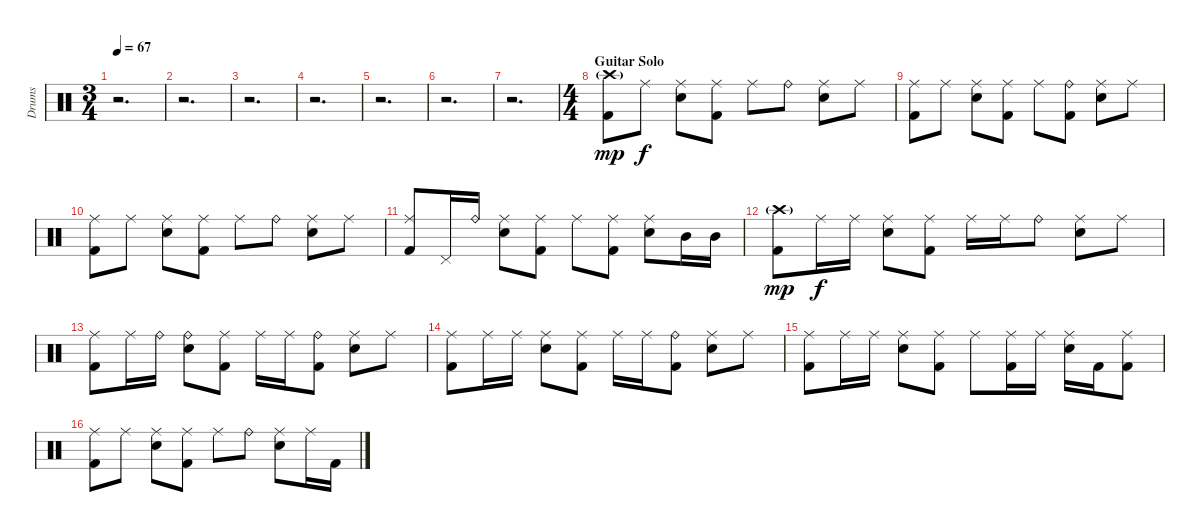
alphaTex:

\track ("Drums" "Drums") {instrument percussion}
\staff {score}
\articulation defaults
\ts (3 4)
\tempo 67
\clef neutral
\ks c
r.2{d dy mp} |
r.2{d} |
r.2{d} |
r.2{d} |
r.2{d} |
r.2{d} |
r.2{d} |
\ts (4 4)
\section ("" "Guitar Solo")
("Crash high (hit)"{g} "Kick (hit) 2").8 "Ride (middle)".8{dy f} ("Ride (middle)" "Snare (hit) 2").8 ("Ride (middle)" "Kick (hit) 2").8 "Ride (middle)".8 "Ride (bell)".8 ("Ride (middle)" "Snare (hit) 2").8 "Ride (middle)".8 |
("Ride (middle)" "Kick (hit) 2").8 "Ride (middle)".8 ("Ride (middle)" "Snare (hit) 2").8 ("Ride (middle)" "Kick (hit) 2").8 "Ride (middle)".8 ("Ride (bell)" "Kick (hit) 2").8 ("Ride (middle)" "Snare (hit) 2").8 "Ride (middle)".8 |
("Ride (middle)" "Kick (hit) 2").8 "Ride (middle)".8 ("Ride (middle)" "Snare (hit) 2").8 ("Ride (middle)" "Kick (hit) 2").8 "Ride (middle)".8 "Ride (bell)".8 ("Ride (middle)" "Snare (hit) 2").8 "Ride (middle)".8 |
("Ride (middle)" "Kick (hit) 2").8 "Pedal Hi-Hat (hit)".16 "Ride (bell)".16 ("Ride (middle)" "Snare (hit) 2").8 ("Ride (middle)" "Kick (hit) 2").8 "Ride (middle)".8 ("Ride (middle)" "Kick (hit) 2").8 ("Ride (middle)" "Snare (hit) 2").8 "Mid Tom (hit)".16 "Mid Tom (hit)".16 |
("Crash high (hit)"{g} "Kick (hit) 2").8{dy mp} "Ride (middle)".16{dy f} "Ride (middle)".16 ("Ride (middle)" "Snare (hit) 2").8 ("Ride (middle)" "Kick (hit) 2").8 "Ride (middle)".16 "Ride (middle)".16 "Ride (bell)".8 ("Ride (middle)" "Snare (hit) 2").8 "Ride (middle)".8 |
("Ride (middle)" "Kick (hit) 2").8 "Ride (middle)".16 "Ride (bell)".16 ("Ride (bell)" "Snare (hit) 2").8 ("Ride (middle)" "Kick (hit) 2").8 "Ride (middle)".16 "Ride (middle)".16 ("Ride (bell)" "Kick (hit) 2").8 ("Ride (middle)" "Snare (hit) 2").8 "Ride (middle)".8 |
("Ride (middle)" "Kick (hit) 2").8 "Ride (middle)".16 "Ride (middle)".16 ("Ride (middle)" "Snare (hit) 2").8 ("Ride (middle)" "Kick (hit) 2").8 "Ride (middle)".16 "Ride (middle)".16 ("Ride (bell)" "Kick (hit) 2").8 ("Ride (middle)" "Snare (hit) 2").8 "Ride (middle)".8 |
("Ride (middle)" "Kick (hit) 2").8 "Ride (middle)".16 "Ride (middle)".16 ("Ride (middle)" "Snare (hit) 2").8 ("Ride (middle)" "Kick (hit) 2").8 "Ride (middle)".8 ("Ride (middle)" "Kick (hit) 2").16 "Ride (middle)".16 ("Ride (middle)" "Snare (hit) 2").16 "Kick (hit) 2".16 ("Ride (middle)" "Kick (hit) 2").8 |
("Ride (middle)" "Kick (hit) 2").8 "Ride (middle)".8 ("Ride (middle)" "Snare (hit) 2").8 ("Ride (middle)" "Kick (hit) 2").8 "Ride (middle)".8 "Ride (bell)".8 ("Ride (middle)" "Snare (hit) 2").8 "Ride (middle)".16 "Kick (hit) 2".16
